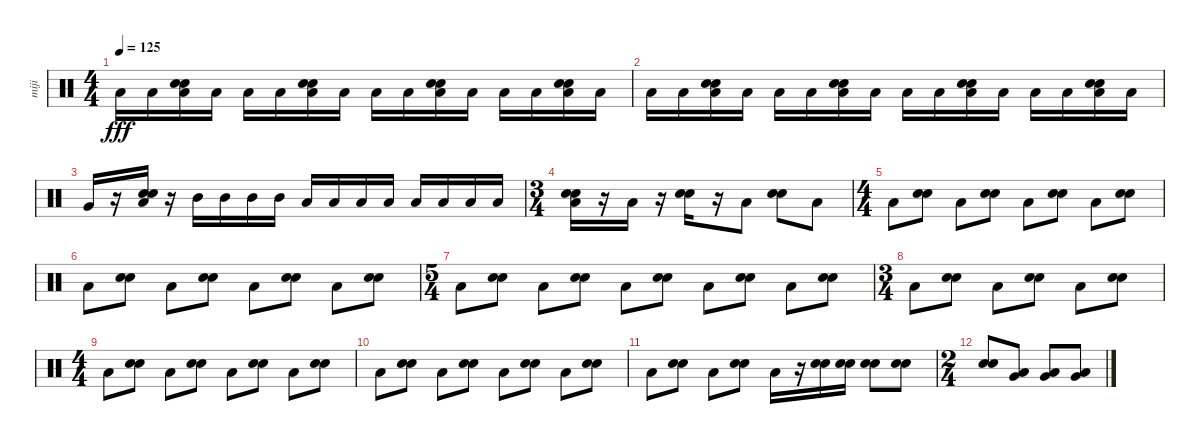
\track ("miji" "miji") {instrument percussion}
\staff {score}
\articulation defaults
\ts (4 4)
\tempo 125
\clef neutral
\ks c "Low Floor Tom (hit)".16{dy fff} "Low Floor Tom (hit)".16
("Low Floor Tom (hit)" "Electric Snare (hit)" "Electric Snare (hit)").16 "Low Floor Tom (hit)".16 "Low Floor Tom (hit)".16 "Low Floor Tom (hit)".16 ("Low Floor Tom (hit)" "Electric Snare (hit)" "Electric Snare (hit)").16 "Low Floor Tom (hit)".16 "Low Floor Tom (hit)".16 "Low Floor Tom (hit)".16 ("Low Floor Tom (hit)" "Electric Snare (hit)" "Electric Snare (hit)").16 "Low Floor Tom (hit)".16 "Low Floor Tom (hit)".16 "Low Floor Tom (hit)".16 ("Low Floor Tom (hit)" "Electric Snare (hit)" "Electric Snare (hit)").16 "Low Floor Tom (hit)".16 |
"Low Floor Tom (hit)".16 "Low Floor Tom (hit)".16 ("Low Floor Tom (hit)" "Electric Snare (hit)" "Electric Snare (hit)").16 "Low Floor Tom (hit)".16 "Low Floor Tom (hit)".16 "Low Floor Tom (hit)".16 ("Low Floor Tom (hit)" "Electric Snare (hit)" "Electric Snare (hit)").16 "Low Floor Tom (hit)".16 "Low Floor Tom (hit)".16 "Low Floor Tom (hit)".16 ("Low Floor Tom (hit)" "Electric Snare (hit)" "Electric Snare (hit)").16 "Low Floor Tom (hit)".16 "Low Floor Tom (hit)".16 "Low Floor Tom (hit)".16 ("Low Floor Tom (hit)" "Electric Snare (hit)" "Electric Snare (hit)").16 "Low Floor Tom (hit)".16 |
"Very Low Tom (hit)".16 r.16 ("Low Floor Tom (hit)" "Electric Snare (hit)" "Electric Snare (hit)").16 r.16 "Mid Tom (hit)".16 "Mid Tom (hit)".16 "Mid Tom (hit)".16 "Mid Tom (hit)".16 "Low Tom (hit)".16 "Low Tom (hit)".16 "Low Tom (hit)".16 "Low Tom (hit)".16 "Low Floor Tom (hit)".16 "Low Floor Tom (hit)".16 "Low Floor Tom (hit)".16 "Low Floor Tom (hit)".16 |
\ts (3 4)
("Low Floor Tom (hit)" "Electric Snare (hit)" "Electric Snare (hit)").16 r.16 "Low Floor Tom (hit)".16 r.16 ("Electric Snare (hit)" "Electric Snare (hit)").16 r.16 "Low Floor Tom (hit)".8 ("Electric Snare (hit)" "Electric Snare (hit)").8 "Low Floor Tom (hit)".8 |
\ts (4 4)
"Low Floor Tom (hit)".8 ("Electric Snare (hit)" "Electric Snare (hit)").8 "Low Floor Tom (hit)".8 ("Electric Snare (hit)" "Electric Snare (hit)").8 "Low Floor Tom (hit)".8 ("Electric Snare (hit)" "Electric Snare (hit)").8 "Low Floor Tom (hit)".8 ("Electric Snare (hit)" "Electric Snare (hit)").8 |
"Low Floor Tom (hit)".8 ("Electric Snare (hit)" "Electric Snare (hit)").8 "Low Floor Tom (hit)".8 ("Electric Snare (hit)" "Electric Snare (hit)").8 "Low Floor Tom (hit)".8 ("Electric Snare (hit)" "Electric Snare (hit)").8 "Low Floor Tom (hit)".8 ("Electric Snare (hit)" "Electric Snare (hit)").8 |
\ts (5 4)
"Low Floor Tom (hit)".8 ("Electric Snare (hit)" "Electric Snare (hit)").8 "Low Floor Tom (hit)".8 ("Electric Snare (hit)" "Electric Snare (hit)").8 "Low Floor Tom (hit)".8 ("Electric Snare (hit)" "Electric Snare (hit)").8 "Low Floor Tom (hit)".8 ("Electric Snare (hit)" "Electric Snare (hit)").8 "Low Floor Tom (hit)".8 ("Electric Snare (hit)" "Electric Snare (hit)").8 |
\ts (3 4)
"Low Floor Tom (hit)".8 ("Electric Snare (hit)" "Electric Snare (hit)").8 "Low Floor Tom (hit)".8 ("Electric Snare (hit)" "Electric Snare (hit)").8 "Low Floor Tom (hit)".8 ("Electric Snare (hit)" "Electric Snare (hit)").8 |
\ts (4 4)
"Low Floor Tom (hit)".8 ("Electric Snare (hit)" "Electric Snare (hit)").8 "Low Floor Tom (hit)".8 ("Electric Snare (hit)" "Electric Snare (hit)").8 "Low Floor Tom (hit)".8 ("Electric Snare (hit)" "Electric Snare (hit)").8 "Low Floor Tom (hit)".8 ("Electric Snare (hit)" "Electric Snare (hit)").8 |
"Low Floor Tom (hit)".8 ("Electric Snare (hit)" "Electric Snare (hit)").8 "Low Floor Tom (hit)".8 ("Electric Snare (hit)" "Electric Snare (hit)").8 "Low Floor Tom (hit)".8 ("Electric Snare (hit)" "Electric Snare (hit)").8 "Low Floor Tom (hit)".8 ("Electric Snare (hit)" "Electric Snare (hit)").8 |
"Low Floor Tom (hit)".8 ("Electric Snare (hit)" "Electric Snare (hit)").8 "Low Floor Tom (hit)".8 ("Electric Snare (hit)" "Electric Snare (hit)").8 "Low Floor Tom (hit)".16 r.16 ("Electric Snare (hit)" "Electric Snare (hit)").16 ("Electric Snare (hit)" "Electric Snare (hit)").16 ("Electric Snare (hit)" "Electric Snare (hit)").8 ("Electric Snare (hit)" "Electric Snare (hit)").8 |
\ts (2 4)
("Electric Snare (hit)" "Electric Snare (hit)").8 ("Low Floor Tom (hit)" "Very Low Tom (hit)").8 ("Low Floor Tom (hit)" "Very Low Tom (hit)").8 ("Low Floor Tom (hit)" "Very Low Tom (hit)").8
